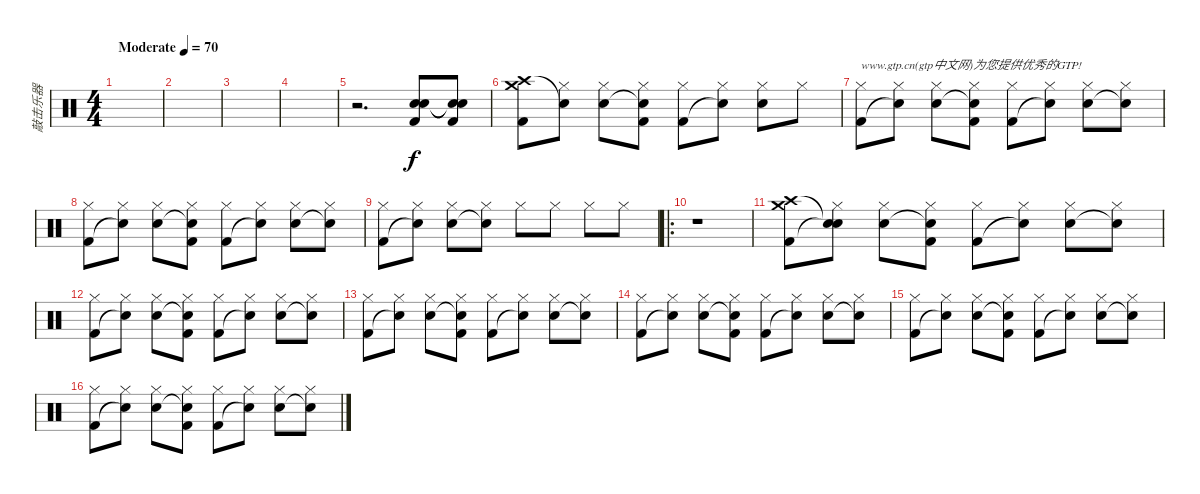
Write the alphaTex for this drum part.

\track ("敲击乐器" "敲击乐器") {instrument percussion}
\staff {score}
\articulation defaults
\ts (4 4)
\tempo (70 "Moderate")
\clef neutral
\ks c
|
|
|
|
r.2{d} ("Snare (hit) 2" "Snare (hit) 2" "Kick (hit) 2").8 ("Snare (hit)"{t} "Snare (hit)"{t} "Kick (hit) 2").8 |
("Crash medium (hit)" "Crash high (hit)" "Kick (hit) 2").8 ("Hi-Hat (closed)" "Snare (hit)"{t}).8 ("Hi-Hat (closed)" "Snare (hit) 2").8 ("Hi-Hat (closed)" "Snare (hit)"{t} "Kick (hit) 2").8 ("Hi-Hat (closed)" "Kick (hit) 2").8 ("Hi-Hat (closed)" "Snare (hit)"{t}).8 ("Hi-Hat (closed)" "Snare (hit) 2").8 "Hi-Hat (closed)".8 |
("Hi-Hat (closed)" "Kick (hit) 2").8{txt "www.gtp.cn(gtp中文网)为您提供优秀的GTP!"} ("Hi-Hat (closed)" "Snare (hit)"{t}).8 ("Hi-Hat (closed)" "Snare (hit) 2").8 ("Hi-Hat (closed)" "Snare (hit)"{t} "Kick (hit) 2").8 ("Hi-Hat (closed)" "Kick (hit) 2").8 ("Hi-Hat (closed)" "Snare (hit)"{t}).8 ("Hi-Hat (closed)" "Snare (hit) 2").8 ("Hi-Hat (closed)" "Snare (hit)"{t}).8 |
("Hi-Hat (closed)" "Kick (hit) 2").8 ("Hi-Hat (closed)" "Snare (hit)"{t}).8 ("Hi-Hat (closed)" "Snare (hit) 2").8 ("Hi-Hat (closed)" "Snare (hit)"{t} "Kick (hit) 2").8 ("Hi-Hat (closed)" "Kick (hit) 2").8 ("Hi-Hat (closed)" "Snare (hit)"{t}).8 ("Hi-Hat (closed)" "Snare (hit) 2").8 ("Hi-Hat (closed)" "Snare (hit)"{t}).8 |
("Hi-Hat (closed)" "Kick (hit) 2").8 ("Hi-Hat (closed)" "Snare (hit)"{t}).8 ("Hi-Hat (closed)" "Snare (hit) 2").8 ("Hi-Hat (closed)" "Snare (hit)"{t}).8 "Hi-Hat (closed)".8 "Hi-Hat (closed)".8 "Hi-Hat (closed)".8 "Hi-Hat (closed)".8 |
\ro
r.1 |
("Crash medium (hit)" "Crash high (hit)" "Kick (hit) 2").8 ("Hi-Hat (closed)" "Snare (hit)"{t} "Snare (hit)"{t}).8 ("Hi-Hat (closed)" "Snare (hit) 2").8 ("Hi-Hat (closed)" "Snare (hit)"{t} "Kick (hit) 2").8 ("Hi-Hat (closed)" "Kick (hit) 2").8 ("Hi-Hat (closed)" "Snare (hit)"{t}).8 ("Hi-Hat (closed)" "Snare (hit) 2").8 ("Hi-Hat (closed)" "Snare (hit)"{t}).8 |
("Hi-Hat (closed)" "Kick (hit) 2").8 ("Hi-Hat (closed)" "Snare (hit)"{t}).8 ("Hi-Hat (closed)" "Snare (hit) 2").8 ("Hi-Hat (closed)" "Snare (hit)"{t} "Kick (hit) 2").8 ("Hi-Hat (closed)" "Kick (hit) 2").8 ("Hi-Hat (closed)" "Snare (hit)"{t}).8 ("Hi-Hat (closed)" "Snare (hit) 2").8 ("Hi-Hat (closed)" "Snare (hit)"{t}).8 |
("Hi-Hat (closed)" "Kick (hit) 2").8 ("Hi-Hat (closed)" "Snare (hit)"{t}).8 ("Hi-Hat (closed)" "Snare (hit) 2").8 ("Hi-Hat (closed)" "Snare (hit)"{t} "Kick (hit) 2").8 ("Hi-Hat (closed)" "Kick (hit) 2").8 ("Hi-Hat (closed)" "Snare (hit)"{t}).8 ("Hi-Hat (closed)" "Snare (hit) 2").8 ("Hi-Hat (closed)" "Snare (hit)"{t}).8 |
("Hi-Hat (closed)" "Kick (hit) 2").8 ("Hi-Hat (closed)" "Snare (hit)"{t}).8 ("Hi-Hat (closed)" "Snare (hit) 2").8 ("Hi-Hat (closed)" "Snare (hit)"{t} "Kick (hit) 2").8 ("Hi-Hat (closed)" "Kick (hit) 2").8 ("Hi-Hat (closed)" "Snare (hit)"{t}).8 ("Hi-Hat (closed)" "Snare (hit) 2").8 ("Hi-Hat (closed)" "Snare (hit)"{t}).8 |
("Hi-Hat (closed)" "Kick (hit) 2").8 ("Hi-Hat (closed)" "Snare (hit)"{t}).8 ("Hi-Hat (closed)" "Snare (hit) 2").8 ("Hi-Hat (closed)" "Snare (hit)"{t} "Kick (hit) 2").8 ("Hi-Hat (closed)" "Kick (hit) 2").8 ("Hi-Hat (closed)" "Snare (hit)"{t}).8 ("Hi-Hat (closed)" "Snare (hit) 2").8 ("Hi-Hat (closed)" "Snare (hit)"{t}).8 |
("Hi-Hat (closed)" "Kick (hit) 2").8 ("Hi-Hat (closed)" "Snare (hit)"{t}).8 ("Hi-Hat (closed)" "Snare (hit) 2").8 ("Hi-Hat (closed)" "Snare (hit)"{t} "Kick (hit) 2").8 ("Hi-Hat (closed)" "Kick (hit) 2").8 ("Hi-Hat (closed)" "Snare (hit)"{t}).8 ("Hi-Hat (closed)" "Snare (hit) 2").8 ("Hi-Hat (closed)" "Snare (hit)"{t}).8
